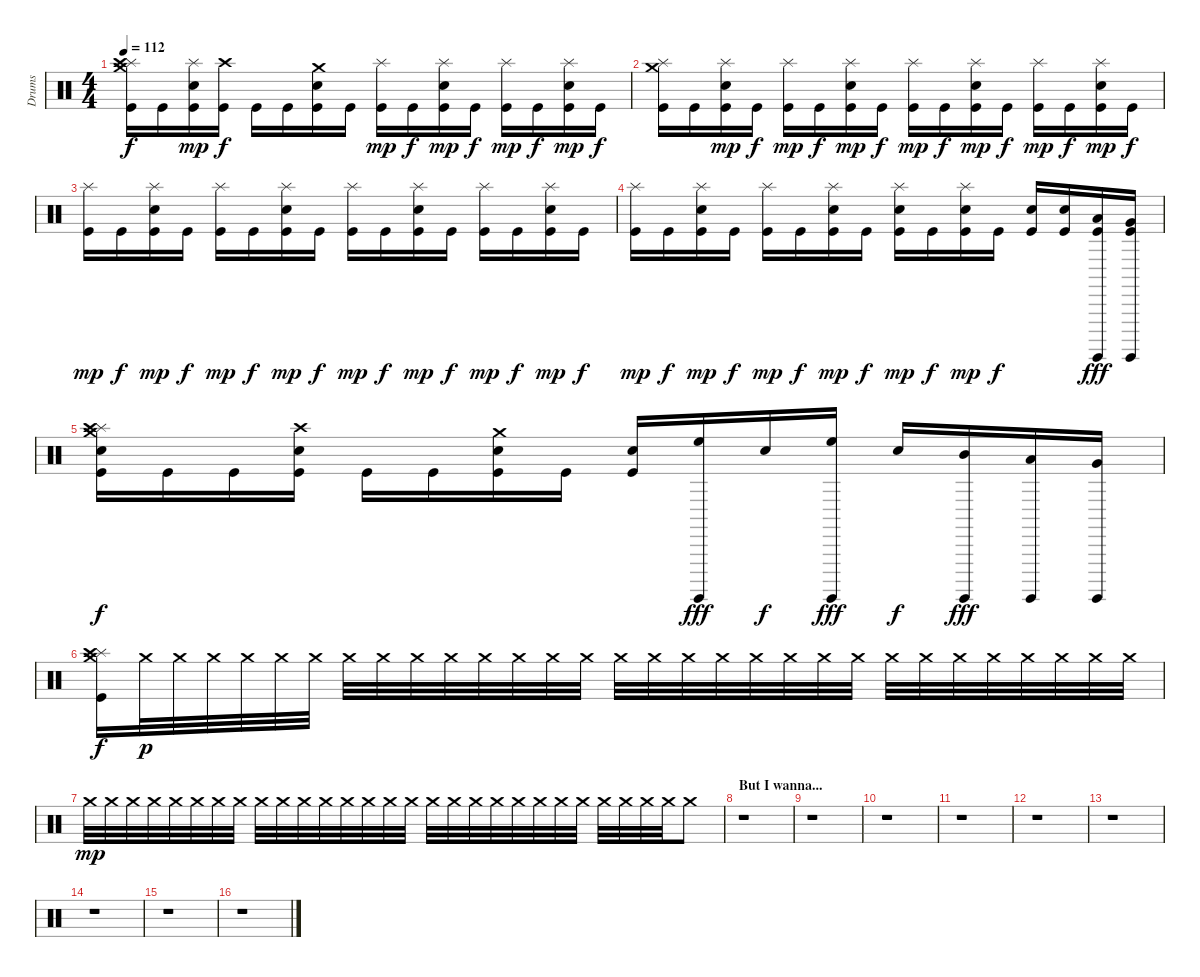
\track ("Drums" "Drums") {instrument percussion}
\staff {score}
\articulation defaults
\ts (4 4)
\tempo 112
\clef neutral
\ks c
("Crash medium (hit)" "Splash (hit)" "Crash high (hit)" "Kick (hit)").16{dy f} "Kick (hit)".16 ("Splash (hit)" "Electric Snare (hit)" "Kick (hit)").16{dy mp} ("Crash high (hit)" "Kick (hit)").16{dy f} "Kick (hit)".16 "Kick (hit)".16 ("Crash medium (hit)" "Electric Snare (hit)" "Kick (hit)").16 "Kick (hit)".16 ("Splash (hit)" "Kick (hit)").16{dy mp} "Kick (hit)".16{dy f} ("Splash (hit)" "Electric Snare (hit)" "Kick (hit)").16{dy mp} "Kick (hit)".16{dy f} ("Splash (hit)" "Kick (hit)").16{dy mp} "Kick (hit)".16{dy f} ("Splash (hit)" "Electric Snare (hit)" "Kick (hit)").16{dy mp} "Kick (hit)".16{dy f} |
("Crash medium (hit)" "Splash (hit)" "Kick (hit)").16 "Kick (hit)".16 ("Splash (hit)" "Electric Snare (hit)" "Kick (hit)").16{dy mp} "Kick (hit)".16{dy f} ("Splash (hit)" "Kick (hit)").16{dy mp} "Kick (hit)".16{dy f} ("Splash (hit)" "Electric Snare (hit)" "Kick (hit)").16{dy mp} "Kick (hit)".16{dy f} ("Splash (hit)" "Kick (hit)").16{dy mp} "Kick (hit)".16{dy f} ("Splash (hit)" "Electric Snare (hit)" "Kick (hit)").16{dy mp} "Kick (hit)".16{dy f} ("Splash (hit)" "Kick (hit)").16{dy mp} "Kick (hit)".16{dy f} ("Splash (hit)" "Electric Snare (hit)" "Kick (hit)").16{dy mp} "Kick (hit)".16{dy f} |
("Splash (hit)" "Kick (hit)").16{dy mp} "Kick (hit)".16{dy f} ("Splash (hit)" "Electric Snare (hit)" "Kick (hit)").16{dy mp} "Kick (hit)".16{dy f} ("Splash (hit)" "Kick (hit)").16{dy mp} "Kick (hit)".16{dy f} ("Splash (hit)" "Electric Snare (hit)" "Kick (hit)").16{dy mp} "Kick (hit)".16{dy f} ("Splash (hit)" "Kick (hit)").16{dy mp} "Kick (hit)".16{dy f} ("Splash (hit)" "Electric Snare (hit)" "Kick (hit)").16{dy mp} "Kick (hit)".16{dy f} ("Splash (hit)" "Kick (hit)").16{dy mp} "Kick (hit)".16{dy f} ("Splash (hit)" "Electric Snare (hit)" "Kick (hit)").16{dy mp} "Kick (hit)".16{dy f} |
("Splash (hit)" "Kick (hit)").16{dy mp} "Kick (hit)".16{dy f} ("Splash (hit)" "Electric Snare (hit)" "Kick (hit)").16{dy mp} "Kick (hit)".16{dy f} ("Splash (hit)" "Kick (hit)").16{dy mp} "Kick (hit)".16{dy f} ("Splash (hit)" "Electric Snare (hit)" "Kick (hit)").16{dy mp} "Kick (hit)".16{dy f} ("Splash (hit)" "Electric Snare (hit)" "Kick (hit)").16{dy mp} "Kick (hit)".16{dy f} ("Splash (hit)" "Electric Snare (hit)" "Kick (hit)").16{dy mp} "Kick (hit)".16{dy f} ("Electric Snare (hit)" "Kick (hit)").16 ("Electric Snare (hit)" "Kick (hit)").16 ("Surdo (hit)" "Low Tom (hit)" "Kick (hit)").16{dy fff} ("Surdo (hit)" "Very Low Tom (hit)" "Kick (hit)").16 |
("Crash medium (hit)" "Splash (hit)" "Crash high (hit)" "Electric Snare (hit)" "Kick (hit)").16{dy f} "Kick (hit)".16 "Kick (hit)".16 ("Crash high (hit)" "Electric Snare (hit)" "Kick (hit)").16 "Kick (hit)".16 "Kick (hit)".16 ("Crash medium (hit)" "Electric Snare (hit)" "Kick (hit)").16 "Kick (hit)".16 ("Electric Snare (hit)" "Kick (hit)").16 ("Surdo (hit)" "High Floor Tom (hit)").16{dy fff} "Electric Snare (hit)".16{dy f} ("Surdo (hit)" "High Floor Tom (hit)").16{dy fff} "Electric Snare (hit)".16{dy f} ("Surdo (hit)" "Mid Tom (hit)").16{dy fff} ("Surdo (hit)" "Low Tom (hit)").16 ("Surdo (hit)" "Very Low Tom (hit)").16 |
("Crash medium (hit)" "Splash (hit)" "Crash high (hit)" "Kick (hit)").16{dy f} "Crash medium (hit)".32{dy p} "Crash medium (hit)".32 "Crash medium (hit)".32 "Crash medium (hit)".32 "Crash medium (hit)".32 "Crash medium (hit)".32 "Crash medium (hit)".32 "Crash medium (hit)".32 "Crash medium (hit)".32 "Crash medium (hit)".32 "Crash medium (hit)".32 "Crash medium (hit)".32 "Crash medium (hit)".32 "Crash medium (hit)".32 "Crash medium (hit)".32 "Crash medium (hit)".32 "Crash medium (hit)".32 "Crash medium (hit)".32 "Crash medium (hit)".32 "Crash medium (hit)".32 "Crash medium (hit)".32 "Crash medium (hit)".32 "Crash medium (hit)".32 "Crash medium (hit)".32 "Crash medium (hit)".32 "Crash medium (hit)".32 "Crash medium (hit)".32 "Crash medium (hit)".32 "Crash medium (hit)".32 "Crash medium (hit)".32 |
"Crash medium (hit)".32{dy mp} "Crash medium (hit)".32 "Crash medium (hit)".32 "Crash medium (hit)".32 "Crash medium (hit)".32 "Crash medium (hit)".32 "Crash medium (hit)".32 "Crash medium (hit)".32 "Crash medium (hit)".32 "Crash medium (hit)".32 "Crash medium (hit)".32 "Crash medium (hit)".32 "Crash medium (hit)".32 "Crash medium (hit)".32 "Crash medium (hit)".32 "Crash medium (hit)".32 "Crash medium (hit)".32 "Crash medium (hit)".32 "Crash medium (hit)".32 "Crash medium (hit)".32 "Crash medium (hit)".32 "Crash medium (hit)".32 "Crash medium (hit)".32 "Crash medium (hit)".32 "Crash medium (hit)".32 "Crash medium (hit)".32 "Crash medium (hit)".32 "Crash medium (hit)".32 "Crash medium (hit)".8 |
\section ("" "But I wanna...")
r.1 |
r.1 |
r.1 |
r.1 |
r.1 |
r.1 |
r.1 |
r.1 |
r.1
